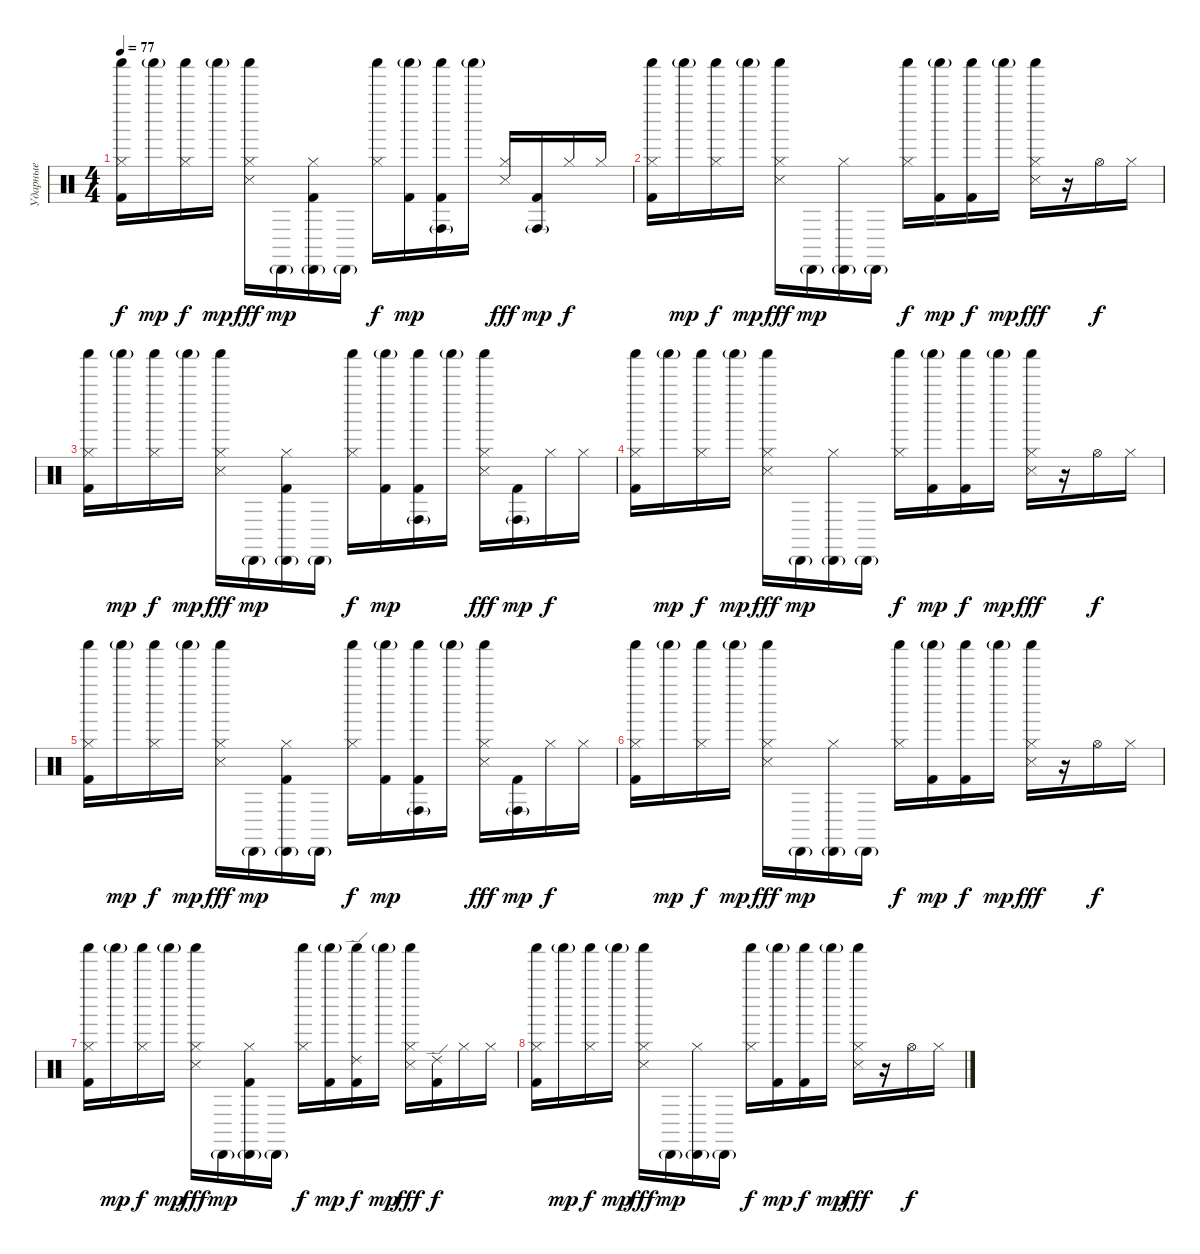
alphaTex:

\track ("Ударные" "Ударные") {instrument percussion}
\staff {score}
\articulation defaults
\ts (4 4)
\tempo 77
\clef neutral
\ks c
("Kick (hit) 2" "Shaker (hit)" "Hi-Hat (closed)").16{dy f} "Shaker (hit)"{g}.16{dy mp} ("Shaker (hit)" "Hi-Hat (closed)").16{dy f} "Shaker (hit)"{g}.16{dy mp} ("Snare (side stick) 3" "Shaker (hit)" "Hi-Hat (closed)").16{dy fff} "Cabasa (hit)"{g}.16{dy mp} ("Kick (hit) 2" "Cabasa (hit)"{g} "Hi-Hat (closed)").16 "Cabasa (hit)"{g}.16 ("Shaker (hit)" "Hi-Hat (closed)").16{dy f} ("Shaker (hit)"{g} "Kick (hit) 2").16{dy mp} ("Conga high (hit)"{g} "Shaker (hit)" "Kick (hit) 2").16 "Shaker (hit)"{g}.16 ("Snare (side stick) 3" "Hi-Hat (closed)").16{dy fff} ("Conga high (hit)"{g} "Kick (hit) 2").16{dy mp} "Hi-Hat (closed)".16{dy f} "Hi-Hat (closed)".16 |
("Kick (hit) 2" "Shaker (hit)" "Hi-Hat (closed)").16 "Shaker (hit)"{g}.16{dy mp} ("Shaker (hit)" "Hi-Hat (closed)").16{dy f} "Shaker (hit)"{g}.16{dy mp} ("Snare (side stick) 3" "Shaker (hit)" "Hi-Hat (closed)").16{dy fff} "Cabasa (hit)"{g}.16{dy mp} ("Cabasa (hit)"{g} "Hi-Hat (closed)").16 "Cabasa (hit)"{g}.16 ("Shaker (hit)" "Hi-Hat (closed)").16{dy f} ("Shaker (hit)"{g} "Kick (hit) 2").16{dy mp} ("Shaker (hit)" "Kick (hit) 2").16{dy f} "Shaker (hit)"{g}.16{dy mp} ("Snare (side stick) 3" "Shaker (hit)" "Hi-Hat (closed)").16{dy fff} r.16 "Hi-Hat (open)".16{dy f} "Hi-Hat (closed)".16 |
("Kick (hit) 2" "Shaker (hit)" "Hi-Hat (closed)").16 "Shaker (hit)"{g}.16{dy mp} ("Shaker (hit)" "Hi-Hat (closed)").16{dy f} "Shaker (hit)"{g}.16{dy mp} ("Snare (side stick) 3" "Shaker (hit)" "Hi-Hat (closed)").16{dy fff} "Cabasa (hit)"{g}.16{dy mp} ("Kick (hit) 2" "Cabasa (hit)"{g} "Hi-Hat (closed)").16 "Cabasa (hit)"{g}.16 ("Shaker (hit)" "Hi-Hat (closed)").16{dy f} ("Shaker (hit)"{g} "Kick (hit) 2").16{dy mp} ("Conga high (hit)"{g} "Shaker (hit)" "Kick (hit) 2").16 "Shaker (hit)"{g}.16 ("Snare (side stick) 3" "Shaker (hit)" "Hi-Hat (closed)").16{dy fff} ("Conga high (hit)"{g} "Kick (hit) 2").16{dy mp} "Hi-Hat (closed)".16{dy f} "Hi-Hat (closed)".16 |
("Kick (hit) 2" "Shaker (hit)" "Hi-Hat (closed)").16 "Shaker (hit)"{g}.16{dy mp} ("Shaker (hit)" "Hi-Hat (closed)").16{dy f} "Shaker (hit)"{g}.16{dy mp} ("Snare (side stick) 3" "Shaker (hit)" "Hi-Hat (closed)").16{dy fff} "Cabasa (hit)"{g}.16{dy mp} ("Cabasa (hit)"{g} "Hi-Hat (closed)").16 "Cabasa (hit)"{g}.16 ("Shaker (hit)" "Hi-Hat (closed)").16{dy f} ("Shaker (hit)"{g} "Kick (hit) 2").16{dy mp} ("Shaker (hit)" "Kick (hit) 2").16{dy f} "Shaker (hit)"{g}.16{dy mp} ("Snare (side stick) 3" "Shaker (hit)" "Hi-Hat (closed)").16{dy fff} r.16 "Hi-Hat (open)".16{dy f} "Hi-Hat (closed)".16 |
("Kick (hit) 2" "Shaker (hit)" "Hi-Hat (closed)").16 "Shaker (hit)"{g}.16{dy mp} ("Shaker (hit)" "Hi-Hat (closed)").16{dy f} "Shaker (hit)"{g}.16{dy mp} ("Snare (side stick) 3" "Shaker (hit)" "Hi-Hat (closed)").16{dy fff} "Cabasa (hit)"{g}.16{dy mp} ("Kick (hit) 2" "Cabasa (hit)"{g} "Hi-Hat (closed)").16 "Cabasa (hit)"{g}.16 ("Shaker (hit)" "Hi-Hat (closed)").16{dy f} ("Shaker (hit)"{g} "Kick (hit) 2").16{dy mp} ("Conga high (hit)"{g} "Shaker (hit)" "Kick (hit) 2").16 "Shaker (hit)"{g}.16 ("Snare (side stick) 3" "Shaker (hit)" "Hi-Hat (closed)").16{dy fff} ("Conga high (hit)"{g} "Kick (hit) 2").16{dy mp} "Hi-Hat (closed)".16{dy f} "Hi-Hat (closed)".16 |
("Kick (hit) 2" "Shaker (hit)" "Hi-Hat (closed)").16 "Shaker (hit)"{g}.16{dy mp} ("Shaker (hit)" "Hi-Hat (closed)").16{dy f} "Shaker (hit)"{g}.16{dy mp} ("Snare (side stick) 3" "Shaker (hit)" "Hi-Hat (closed)").16{dy fff} "Cabasa (hit)"{g}.16{dy mp} ("Cabasa (hit)"{g} "Hi-Hat (closed)").16 "Cabasa (hit)"{g}.16 ("Shaker (hit)" "Hi-Hat (closed)").16{dy f} ("Shaker (hit)"{g} "Kick (hit) 2").16{dy mp} ("Shaker (hit)" "Kick (hit) 2").16{dy f} "Shaker (hit)"{g}.16{dy mp} ("Snare (side stick) 3" "Shaker (hit)" "Hi-Hat (closed)").16{dy fff} r.16 "Hi-Hat (open)".16{dy f} "Hi-Hat (closed)".16 |
("Kick (hit) 2" "Shaker (hit)" "Hi-Hat (closed)").16 "Shaker (hit)"{g}.16{dy mp} ("Shaker (hit)" "Hi-Hat (closed)").16{dy f} "Shaker (hit)"{g}.16{dy mp} ("Snare (side stick) 3" "Shaker (hit)" "Hi-Hat (closed)").16{dy fff} "Cabasa (hit)"{g}.16{dy mp} ("Kick (hit) 2" "Cabasa (hit)"{g} "Hi-Hat (closed)").16 "Cabasa (hit)"{g}.16 ("Shaker (hit)" "Hi-Hat (closed)").16{dy f} ("Shaker (hit)"{g} "Kick (hit) 2").16{dy mp} ("Ride (edge) 2" "Shaker (hit)" "Kick (hit) 2").16{dy f} "Shaker (hit)"{g}.16{dy mp} ("Snare (side stick) 3" "Shaker (hit)" "Hi-Hat (closed)").16{dy fff} ("Ride (edge) 2" "Kick (hit) 2").16{dy f} "Hi-Hat (closed)".16 "Hi-Hat (closed)".16 |
("Kick (hit) 2" "Shaker (hit)" "Hi-Hat (closed)").16 "Shaker (hit)"{g}.16{dy mp} ("Shaker (hit)" "Hi-Hat (closed)").16{dy f} "Shaker (hit)"{g}.16{dy mp} ("Snare (side stick) 3" "Shaker (hit)" "Hi-Hat (closed)").16{dy fff} "Cabasa (hit)"{g}.16{dy mp} ("Cabasa (hit)"{g} "Hi-Hat (closed)").16 "Cabasa (hit)"{g}.16 ("Shaker (hit)" "Hi-Hat (closed)").16{dy f} ("Shaker (hit)"{g} "Kick (hit) 2").16{dy mp} ("Shaker (hit)" "Kick (hit) 2").16{dy f} "Shaker (hit)"{g}.16{dy mp} ("Snare (side stick) 3" "Shaker (hit)" "Hi-Hat (closed)").16{dy fff} r.16 "Hi-Hat (open)".16{dy f} "Hi-Hat (closed)".16
